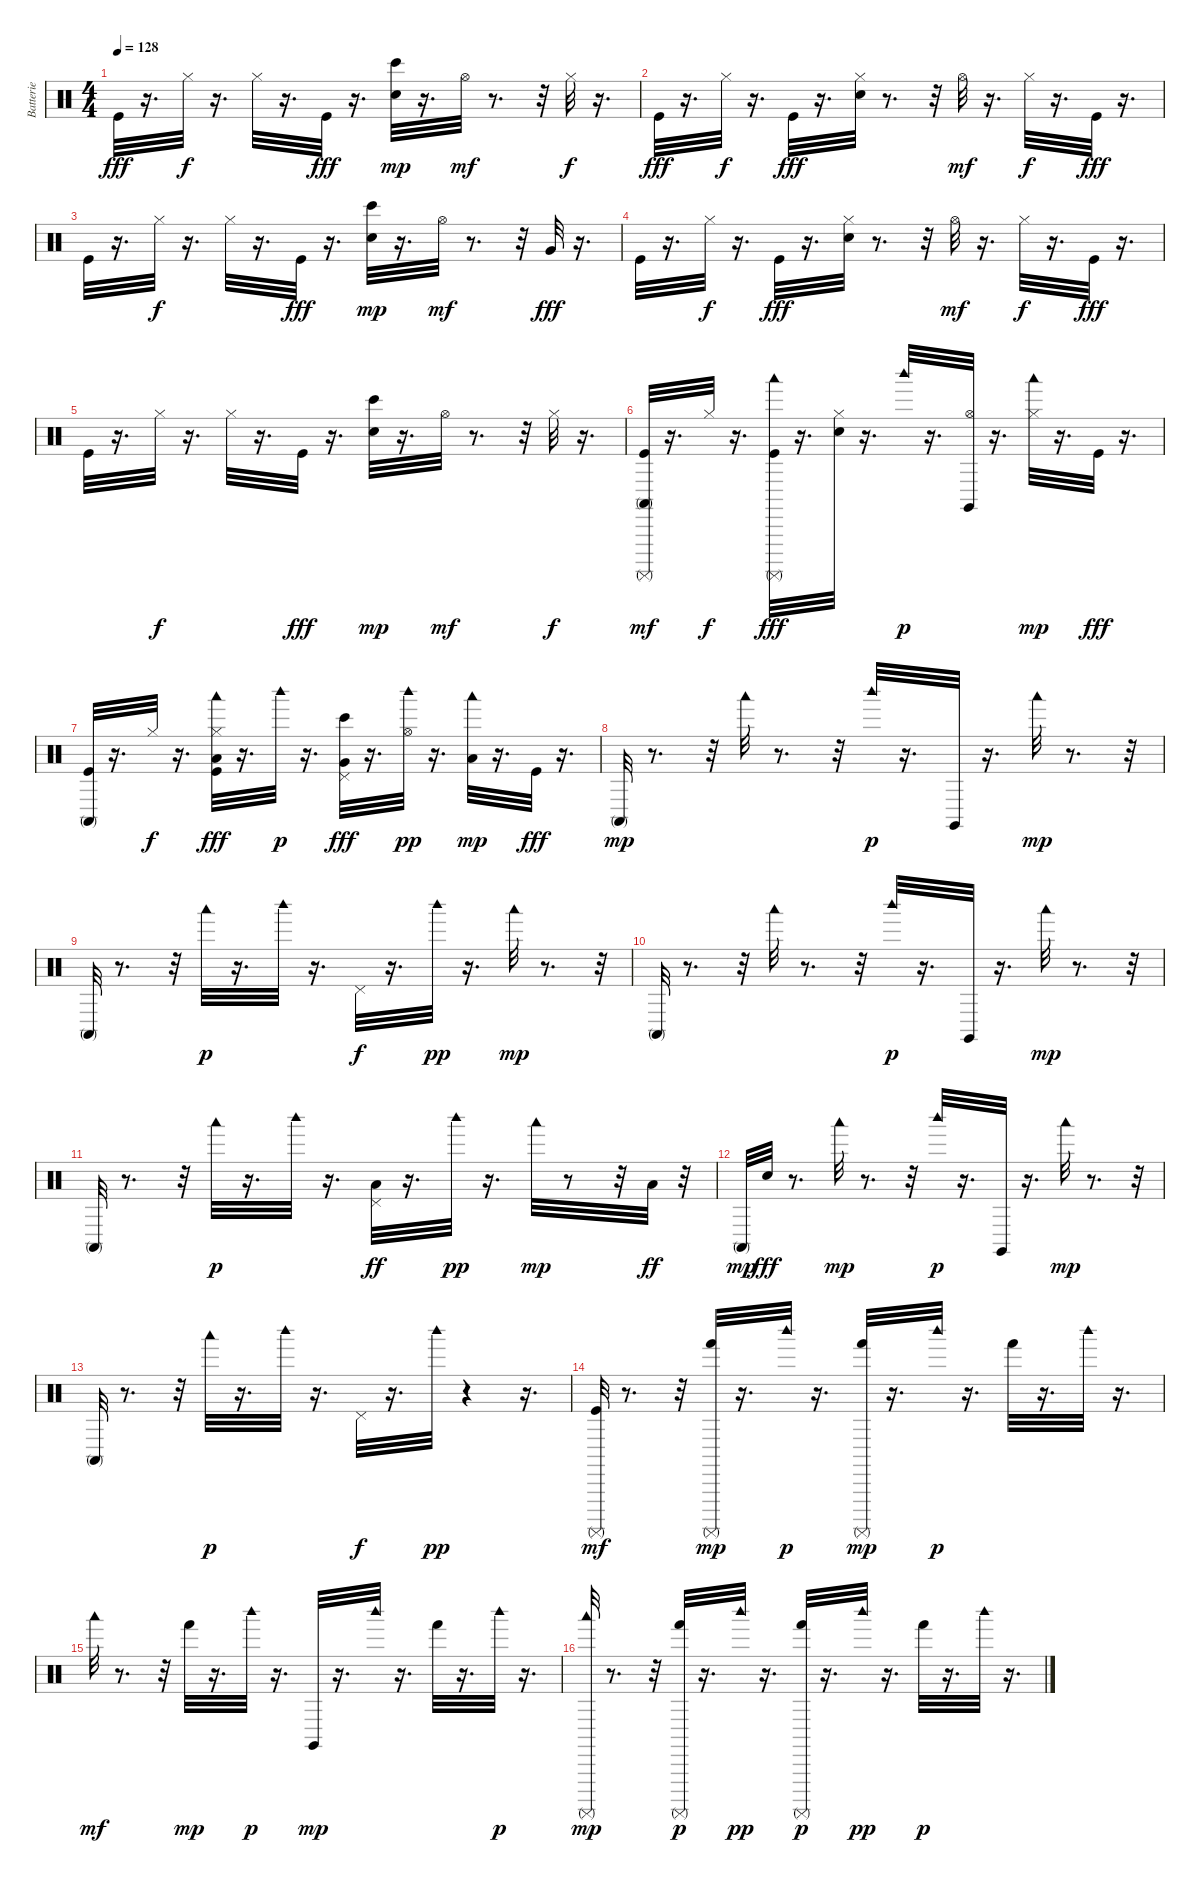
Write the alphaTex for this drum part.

\track ("Batterie" "Batterie") {instrument percussion}
\staff {score}
\articulation defaults
\ts (4 4)
\tempo 128
\clef neutral
\ks c "Kick (hit)".32{dy fff}
r.16{d} "Hi-Hat (closed)".32{dy f} r.16{d} "Hi-Hat (closed)".32 r.16{d} "Kick (hit)".32{dy fff} r.16{d} ("Electric Snare (hit)" "Bongo High (hit)").32{dy mp} r.16{d} "Hi-Hat (open)".32{dy mf} r.8{d} r.32 "Hi-Hat (closed)".32{dy f} r.16{d} |
"Kick (hit)".32{dy fff} r.16{d} "Hi-Hat (closed)".32{dy f} r.16{d} "Kick (hit)".32{dy fff} r.16{d} ("Electric Snare (hit)" "Hi-Hat (closed)").32 r.8{d} r.32 "Hi-Hat (open)".32{dy mf} r.16{d} "Hi-Hat (closed)".32{dy f} r.16{d} "Kick (hit)".32{dy fff} r.16{d} |
"Kick (hit)".32 r.16{d} "Hi-Hat (closed)".32{dy f} r.16{d} "Hi-Hat (closed)".32 r.16{d} "Kick (hit)".32{dy fff} r.16{d} ("Electric Snare (hit)" "Bongo High (hit)").32{dy mp} r.16{d} "Hi-Hat (open)".32{dy mf} r.8{d} r.32 "Very Low Tom (hit)".32{dy fff} r.16{d} |
"Kick (hit)".32 r.16{d} "Hi-Hat (closed)".32{dy f} r.16{d} "Kick (hit)".32{dy fff} r.16{d} ("Hi-Hat (closed)" "Electric Snare (hit)").32 r.8{d} r.32 "Hi-Hat (open)".32{dy mf} r.16{d} "Hi-Hat (closed)".32{dy f} r.16{d} "Kick (hit)".32{dy fff} r.16{d} |
"Kick (hit)".32 r.16{d} "Hi-Hat (closed)".32{dy f} r.16{d} "Hi-Hat (closed)".32 r.16{d} "Kick (hit)".32{dy fff} r.16{d} ("Electric Snare (hit)" "Bongo High (hit)").32{dy mp} r.16{d} "Hi-Hat (open)".32{dy mf} r.8{d} r.32 "Hi-Hat (closed)".32{dy f} r.16{d} |
("Kick (hit)" "Conga high (mute)" "Surdo (mute)").32{dy mf} r.16{d} "Hi-Hat (closed)".32{dy f} r.16{d} ("Woodblock low (hit)" "Kick (hit)" "Surdo (mute)").32{dy fff} r.16{d} ("Hi-Hat (closed)" "Electric Snare (hit)").32 r.16{d} "Woodblock high (hit)".32{dy p} r.16{d} ("Hi-Hat (open)" "Claves (hit)").32 r.16{d} ("Woodblock low (hit)" "Hi-Hat (closed)").32{dy mp} r.16{d} "Kick (hit)".32{dy fff} r.16{d} |
("Conga high (mute)" "Kick (hit)").32 r.16{d} "Hi-Hat (closed)".32{dy f} r.16{d} ("Hi-Hat (closed)" "Woodblock low (hit)" "Low Tom (hit)" "Kick (hit)").32{dy fff} r.16{d} "Woodblock high (hit)".32{dy p} r.16{d} ("Bongo High (hit)" "Very Low Tom (hit)" "Pedal Hi-Hat (hit)").32{dy fff} r.16{d} ("Hi-Hat (open)" "Woodblock high (hit)").32{dy pp} r.16{d} ("Low Floor Tom (hit)" "Woodblock low (hit)").32{dy mp} r.16{d} "Kick (hit)".32{dy fff} r.16{d} |
"Conga high (mute)".32{dy mp} r.8{d} r.32 "Woodblock low (hit)".32 r.8{d} r.32 "Woodblock high (hit)".32{dy p} r.16{d} "Claves (hit)".32 r.16{d} "Woodblock low (hit)".32{dy mp} r.8{d} r.32 |
"Conga high (mute)".32 r.8{d} r.32 "Woodblock low (hit)".32{dy p} r.16{d} "Woodblock high (hit)".32 r.16{d} "Pedal Hi-Hat (hit)".32{dy f} r.16{d} "Woodblock high (hit)".32{dy pp} r.16{d} "Woodblock low (hit)".32{dy mp} r.8{d} r.32 |
"Conga high (mute)".32 r.8{d} r.32 "Woodblock low (hit)".32 r.8{d} r.32 "Woodblock high (hit)".32{dy p} r.16{d} "Claves (hit)".32 r.16{d} "Woodblock low (hit)".32{dy mp} r.8{d} r.32 |
"Conga high (mute)".32 r.8{d} r.32 "Woodblock low (hit)".32{dy p} r.16{d} "Woodblock high (hit)".32 r.16{d} ("Low Floor Tom (hit)" "Pedal Hi-Hat (hit)").32{dy ff} r.16{d} "Woodblock high (hit)".32{dy pp} r.16{d} "Woodblock low (hit)".32{dy mp} r.8 r.32 "Low Tom (hit)".32{dy ff} r.32 |
"Conga high (mute)".32{dy mp} "Electric Snare (hit)".32{dy fff} r.8{d} "Woodblock low (hit)".32{dy mp} r.8{d} r.32 "Woodblock high (hit)".32{dy p} r.16{d} "Claves (hit)".32 r.16{d} "Woodblock low (hit)".32{dy mp} r.8{d} r.32 |
"Conga high (mute)".32 r.8{d} r.32 "Woodblock low (hit)".32{dy p} r.16{d} "Woodblock high (hit)".32 r.16{d} "Pedal Hi-Hat (hit)".32{dy f} r.16{d} "Woodblock high (hit)".32{dy pp} r.4 r.16{d} |
("Kick (hit)" "Surdo (mute)").32{dy mf} r.8{d} r.32 ("Hand (hit)" "Surdo (mute)").32{dy mp} r.16{d} "Woodblock high (hit)".32{dy p} r.16{d} ("Hand (hit)" "Surdo (mute)").32{dy mp} r.16{d} "Woodblock high (hit)".32{dy p} r.16{d} "Hand (hit)".32 r.16{d} "Woodblock high (hit)".32 r.16{d} |
"Woodblock low (hit)".32{dy mf} r.8{d} r.32 "Hand (hit)".32{dy mp} r.16{d} "Woodblock high (hit)".32{dy p} r.16{d} "Claves (hit)".32{dy mp} r.16{d} "Woodblock high (hit)".32 r.16{d} "Hand (hit)".32 r.16{d} "Woodblock high (hit)".32{dy p} r.16{d} |
("Woodblock low (hit)" "Surdo (mute)").32{dy mp} r.8{d} r.32 ("Surdo (mute)" "Hand (hit)").32{dy p} r.16{d} "Woodblock high (hit)".32{dy pp} r.16{d} ("Surdo (mute)" "Hand (hit)").32{dy p} r.16{d} "Woodblock high (hit)".32{dy pp} r.16{d} "Hand (hit)".32{dy p} r.16{d} "Woodblock high (hit)".32 r.16{d}
